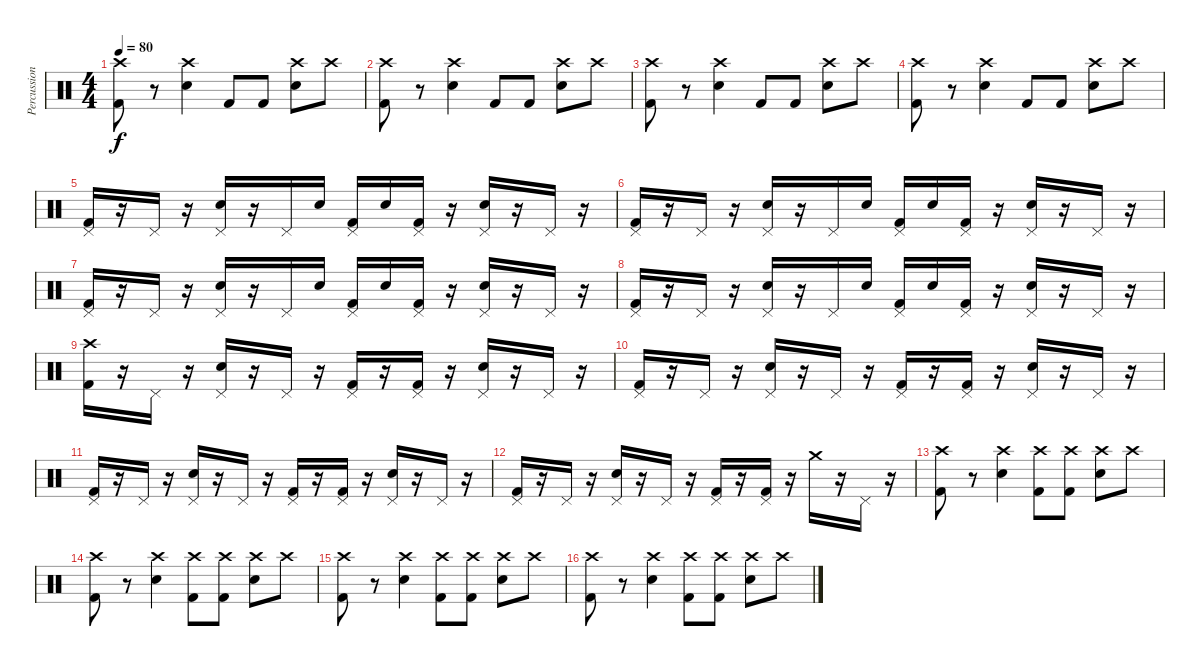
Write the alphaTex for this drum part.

\track ("Percussions" "Percussion") {instrument percussion}
\staff {score}
\articulation defaults
\ts (4 4)
\tempo 80
\clef neutral
\ks c
("Crash high (hit)" "Kick (hit) 2").8{dy f} r.8 ("Crash high (hit)" "Electric Snare (hit)").4 "Kick (hit) 2".8 "Kick (hit) 2".8 ("Crash high (hit)" "Electric Snare (hit)").8 "Crash high (hit)".8 |
("Crash high (hit)" "Kick (hit) 2").8 r.8 ("Crash high (hit)" "Electric Snare (hit)").4 "Kick (hit) 2".8 "Kick (hit) 2".8 ("Crash high (hit)" "Electric Snare (hit)").8 "Crash high (hit)".8 |
("Crash high (hit)" "Kick (hit) 2").8 r.8 ("Crash high (hit)" "Electric Snare (hit)").4 "Kick (hit) 2".8 "Kick (hit) 2".8 ("Crash high (hit)" "Electric Snare (hit)").8 "Crash high (hit)".8 |
("Crash high (hit)" "Kick (hit) 2").8 r.8 ("Crash high (hit)" "Electric Snare (hit)").4 "Kick (hit) 2".8 "Kick (hit) 2".8 ("Crash high (hit)" "Electric Snare (hit)").8 "Crash high (hit)".8 |
("Pedal Hi-Hat (hit)" "Kick (hit) 2").16 r.16 "Pedal Hi-Hat (hit)".16 r.16 ("Pedal Hi-Hat (hit)" "Electric Snare (hit)").16 r.16 "Pedal Hi-Hat (hit)".16 "Electric Snare (hit)".16 ("Pedal Hi-Hat (hit)" "Kick (hit) 2").16 "Electric Snare (hit)".16 ("Pedal Hi-Hat (hit)" "Kick (hit) 2").16 r.16 ("Pedal Hi-Hat (hit)" "Electric Snare (hit)").16 r.16 "Pedal Hi-Hat (hit)".16 r.16 |
("Pedal Hi-Hat (hit)" "Kick (hit) 2").16 r.16 "Pedal Hi-Hat (hit)".16 r.16 ("Pedal Hi-Hat (hit)" "Electric Snare (hit)").16 r.16 "Pedal Hi-Hat (hit)".16 "Electric Snare (hit)".16 ("Pedal Hi-Hat (hit)" "Kick (hit) 2").16 "Electric Snare (hit)".16 ("Pedal Hi-Hat (hit)" "Kick (hit) 2").16 r.16 ("Pedal Hi-Hat (hit)" "Electric Snare (hit)").16 r.16 "Pedal Hi-Hat (hit)".16 r.16 |
("Pedal Hi-Hat (hit)" "Kick (hit) 2").16 r.16 "Pedal Hi-Hat (hit)".16 r.16 ("Pedal Hi-Hat (hit)" "Electric Snare (hit)").16 r.16 "Pedal Hi-Hat (hit)".16 "Electric Snare (hit)".16 ("Pedal Hi-Hat (hit)" "Kick (hit) 2").16 "Electric Snare (hit)".16 ("Pedal Hi-Hat (hit)" "Kick (hit) 2").16 r.16 ("Pedal Hi-Hat (hit)" "Electric Snare (hit)").16 r.16 "Pedal Hi-Hat (hit)".16 r.16 |
("Pedal Hi-Hat (hit)" "Kick (hit) 2").16 r.16 "Pedal Hi-Hat (hit)".16 r.16 ("Pedal Hi-Hat (hit)" "Electric Snare (hit)").16 r.16 "Pedal Hi-Hat (hit)".16 "Electric Snare (hit)".16 ("Pedal Hi-Hat (hit)" "Kick (hit) 2").16 "Electric Snare (hit)".16 ("Pedal Hi-Hat (hit)" "Kick (hit) 2").16 r.16 ("Pedal Hi-Hat (hit)" "Electric Snare (hit)").16 r.16 "Pedal Hi-Hat (hit)".16 r.16 |
("Crash high (hit)" "Kick (hit) 2").16 r.16 "Pedal Hi-Hat (hit)".16 r.16 ("Pedal Hi-Hat (hit)" "Electric Snare (hit)").16 r.16 "Pedal Hi-Hat (hit)".16 r.16 ("Pedal Hi-Hat (hit)" "Kick (hit) 2").16 r.16 ("Pedal Hi-Hat (hit)" "Kick (hit) 2").16 r.16 ("Pedal Hi-Hat (hit)" "Electric Snare (hit)").16 r.16 "Pedal Hi-Hat (hit)".16 r.16 |
("Pedal Hi-Hat (hit)" "Kick (hit) 2").16 r.16 "Pedal Hi-Hat (hit)".16 r.16 ("Pedal Hi-Hat (hit)" "Electric Snare (hit)").16 r.16 "Pedal Hi-Hat (hit)".16 r.16 ("Pedal Hi-Hat (hit)" "Kick (hit) 2").16 r.16 ("Pedal Hi-Hat (hit)" "Kick (hit) 2").16 r.16 ("Pedal Hi-Hat (hit)" "Electric Snare (hit)").16 r.16 "Pedal Hi-Hat (hit)".16 r.16 |
("Pedal Hi-Hat (hit)" "Kick (hit) 2").16 r.16 "Pedal Hi-Hat (hit)".16 r.16 ("Pedal Hi-Hat (hit)" "Electric Snare (hit)").16 r.16 "Pedal Hi-Hat (hit)".16 r.16 ("Pedal Hi-Hat (hit)" "Kick (hit) 2").16 r.16 ("Pedal Hi-Hat (hit)" "Kick (hit) 2").16 r.16 ("Pedal Hi-Hat (hit)" "Electric Snare (hit)").16 r.16 "Pedal Hi-Hat (hit)".16 r.16 |
("Pedal Hi-Hat (hit)" "Kick (hit) 2").16 r.16 "Pedal Hi-Hat (hit)".16 r.16 ("Pedal Hi-Hat (hit)" "Electric Snare (hit)").16 r.16 "Pedal Hi-Hat (hit)".16 r.16 ("Pedal Hi-Hat (hit)" "Kick (hit) 2").16 r.16 ("Pedal Hi-Hat (hit)" "Kick (hit) 2").16 r.16 "Crash medium (hit)".16 r.16 "Pedal Hi-Hat (hit)".16 r.16 |
("Crash high (hit)" "Kick (hit) 2").8 r.8 ("Crash high (hit)" "Electric Snare (hit)").4 ("Crash high (hit)" "Kick (hit) 2").8 ("Crash high (hit)" "Kick (hit) 2").8 ("Crash high (hit)" "Electric Snare (hit)").8 "Crash high (hit)".8 |
("Crash high (hit)" "Kick (hit) 2").8 r.8 ("Crash high (hit)" "Electric Snare (hit)").4 ("Crash high (hit)" "Kick (hit) 2").8 ("Crash high (hit)" "Kick (hit) 2").8 ("Crash high (hit)" "Electric Snare (hit)").8 "Crash high (hit)".8 |
("Crash high (hit)" "Kick (hit) 2").8 r.8 ("Crash high (hit)" "Electric Snare (hit)").4 ("Crash high (hit)" "Kick (hit) 2").8 ("Crash high (hit)" "Kick (hit) 2").8 ("Crash high (hit)" "Electric Snare (hit)").8 "Crash high (hit)".8 |
("Crash high (hit)" "Kick (hit) 2").8 r.8 ("Crash high (hit)" "Electric Snare (hit)").4 ("Crash high (hit)" "Kick (hit) 2").8 ("Crash high (hit)" "Kick (hit) 2").8 ("Crash high (hit)" "Electric Snare (hit)").8 "Crash high (hit)".8
